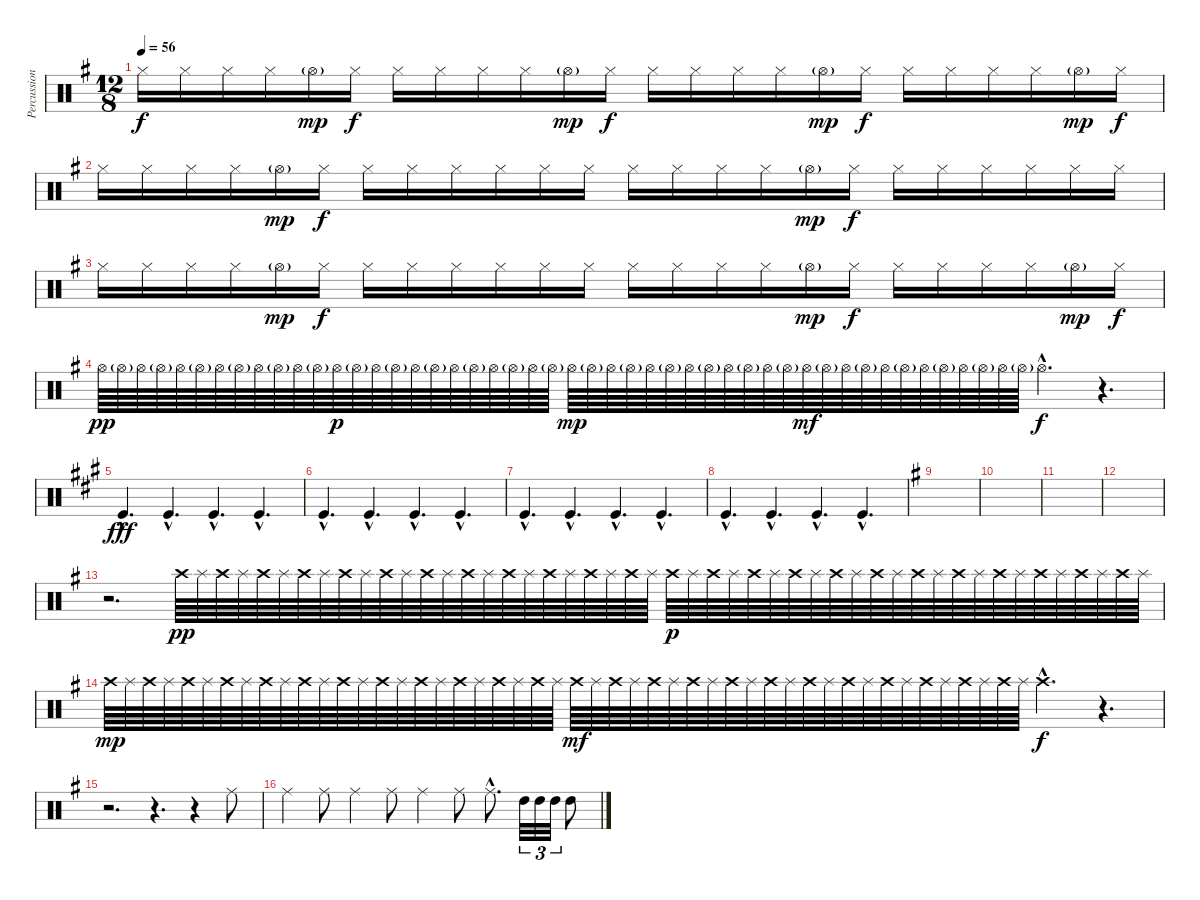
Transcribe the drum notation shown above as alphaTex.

\track ("Percussions" "Percussion") {instrument percussion}
\staff {score}
\articulation defaults
\ts (12 8)
\tempo 56
\clef neutral
\ks eminor "Hi-Hat (closed)".16{dy f} "Hi-Hat (closed)".16 "Hi-Hat (closed)".16 "Hi-Hat (closed)".16 "Hi-Hat (open)"{g}.16{dy mp} "Hi-Hat (closed)".16{dy f} "Hi-Hat (closed)".16 "Hi-Hat (closed)".16 "Hi-Hat (closed)".16 "Hi-Hat (closed)".16 "Hi-Hat (open)"{g}.16{dy mp} "Hi-Hat (closed)".16{dy f} "Hi-Hat (closed)".16 "Hi-Hat (closed)".16 "Hi-Hat (closed)".16 "Hi-Hat (closed)".16 "Hi-Hat (open)"{g}.16{dy mp} "Hi-Hat (closed)".16{dy f} "Hi-Hat (closed)".16 "Hi-Hat (closed)".16 "Hi-Hat (closed)".16 "Hi-Hat (closed)".16 "Hi-Hat (open)"{g}.16{dy mp} "Hi-Hat (closed)".16{dy f}
|
"Hi-Hat (closed)".16 "Hi-Hat (closed)".16 "Hi-Hat (closed)".16 "Hi-Hat (closed)".16 "Hi-Hat (open)"{g}.16{dy mp} "Hi-Hat (closed)".16{dy f} "Hi-Hat (closed)".16 "Hi-Hat (closed)".16 "Hi-Hat (closed)".16 "Hi-Hat (closed)".16 "Hi-Hat (closed)".16 "Hi-Hat (closed)".16 "Hi-Hat (closed)".16 "Hi-Hat (closed)".16 "Hi-Hat (closed)".16 "Hi-Hat (closed)".16 "Hi-Hat (open)"{g}.16{dy mp} "Hi-Hat (closed)".16{dy f} "Hi-Hat (closed)".16 "Hi-Hat (closed)".16 "Hi-Hat (closed)".16 "Hi-Hat (closed)".16 "Hi-Hat (closed)".16 "Hi-Hat (closed)".16 |
"Hi-Hat (closed)".16 "Hi-Hat (closed)".16 "Hi-Hat (closed)".16 "Hi-Hat (closed)".16 "Hi-Hat (open)"{g}.16{dy mp} "Hi-Hat (closed)".16{dy f} "Hi-Hat (closed)".16 "Hi-Hat (closed)".16 "Hi-Hat (closed)".16 "Hi-Hat (closed)".16 "Hi-Hat (closed)".16 "Hi-Hat (closed)".16 "Hi-Hat (closed)".16 "Hi-Hat (closed)".16 "Hi-Hat (closed)".16 "Hi-Hat (closed)".16 "Hi-Hat (open)"{g}.16{dy mp} "Hi-Hat (closed)".16{dy f} "Hi-Hat (closed)".16 "Hi-Hat (closed)".16 "Hi-Hat (closed)".16 "Hi-Hat (closed)".16 "Hi-Hat (open)"{g}.16{dy mp} "Hi-Hat (closed)".16{dy f} |
"Hi-Hat (open)".64{dy pp} "Hi-Hat (open)"{g}.64 "Hi-Hat (open)".64 "Hi-Hat (open)"{g}.64 "Hi-Hat (open)".64 "Hi-Hat (open)"{g}.64 "Hi-Hat (open)".64 "Hi-Hat (open)"{g}.64 "Hi-Hat (open)".64 "Hi-Hat (open)"{g}.64 "Hi-Hat (open)".64 "Hi-Hat (open)"{g}.64 "Hi-Hat (open)".64{dy p} "Hi-Hat (open)"{g}.64 "Hi-Hat (open)".64 "Hi-Hat (open)"{g}.64 "Hi-Hat (open)".64 "Hi-Hat (open)"{g}.64 "Hi-Hat (open)".64 "Hi-Hat (open)"{g}.64 "Hi-Hat (open)".64 "Hi-Hat (open)"{g}.64 "Hi-Hat (open)".64 "Hi-Hat (open)"{g}.64 "Hi-Hat (open)".64{dy mp} "Hi-Hat (open)"{g}.64 "Hi-Hat (open)".64 "Hi-Hat (open)"{g}.64 "Hi-Hat (open)".64 "Hi-Hat (open)"{g}.64 "Hi-Hat (open)".64 "Hi-Hat (open)"{g}.64 "Hi-Hat (open)".64 "Hi-Hat (open)"{g}.64 "Hi-Hat (open)".64 "Hi-Hat (open)"{g}.64 "Hi-Hat (open)".64{dy mf} "Hi-Hat (open)"{g}.64 "Hi-Hat (open)".64 "Hi-Hat (open)"{g}.64 "Hi-Hat (open)".64 "Hi-Hat (open)"{g}.64 "Hi-Hat (open)".64 "Hi-Hat (open)"{g}.64 "Hi-Hat (open)".64 "Hi-Hat (open)"{g}.64 "Hi-Hat (open)".64 "Hi-Hat (open)"{g}.64 "Hi-Hat (open)"{hac}.4{d dy f} r.4{d} |
\ks f#minor "Kick (hit)"{hac}.4{d dy fff} "Kick (hit)"{hac}.4{d} "Kick (hit)"{hac}.4{d} "Kick (hit)"{hac}.4{d}
|
"Kick (hit)"{hac}.4{d} "Kick (hit)"{hac}.4{d} "Kick (hit)"{hac}.4{d} "Kick (hit)"{hac}.4{d} |
"Kick (hit)"{hac}.4{d} "Kick (hit)"{hac}.4{d} "Kick (hit)"{hac}.4{d} "Kick (hit)"{hac}.4{d} |
"Kick (hit)"{hac}.4{d} "Kick (hit)"{hac}.4{d} "Kick (hit)"{hac}.4{d} "Kick (hit)"{hac}.4{d} |
\ks g
|
|
|
|
r.2{d} "Crash high (hit)".64{dy pp} "Splash (hit)".64 "Crash high (hit)".64 "Splash (hit)".64 "Crash high (hit)".64 "Splash (hit)".64 "Crash high (hit)".64 "Splash (hit)".64 "Crash high (hit)".64 "Splash (hit)".64 "Crash high (hit)".64 "Splash (hit)".64 "Crash high (hit)".64 "Splash (hit)".64 "Crash high (hit)".64 "Splash (hit)".64 "Crash high (hit)".64 "Splash (hit)".64 "Crash high (hit)".64 "Splash (hit)".64 "Crash high (hit)".64 "Splash (hit)".64 "Crash high (hit)".64 "Splash (hit)".64 "Crash high (hit)".64{dy p} "Splash (hit)".64 "Crash high (hit)".64 "Splash (hit)".64 "Crash high (hit)".64 "Splash (hit)".64 "Crash high (hit)".64 "Splash (hit)".64 "Crash high (hit)".64 "Splash (hit)".64 "Crash high (hit)".64 "Splash (hit)".64 "Crash high (hit)".64 "Splash (hit)".64 "Crash high (hit)".64 "Splash (hit)".64 "Crash high (hit)".64 "Splash (hit)".64 "Crash high (hit)".64 "Splash (hit)".64 "Crash high (hit)".64 "Splash (hit)".64 "Crash high (hit)".64 "Splash (hit)".64 |
"Crash high (hit)".64{dy mp} "Splash (hit)".64 "Crash high (hit)".64 "Splash (hit)".64 "Crash high (hit)".64 "Splash (hit)".64 "Crash high (hit)".64 "Splash (hit)".64 "Crash high (hit)".64 "Splash (hit)".64 "Crash high (hit)".64 "Splash (hit)".64 "Crash high (hit)".64 "Splash (hit)".64 "Crash high (hit)".64 "Splash (hit)".64 "Crash high (hit)".64 "Splash (hit)".64 "Crash high (hit)".64 "Splash (hit)".64 "Crash high (hit)".64 "Splash (hit)".64 "Crash high (hit)".64 "Splash (hit)".64 "Crash high (hit)".64{dy mf} "Splash (hit)".64 "Crash high (hit)".64 "Splash (hit)".64 "Crash high (hit)".64 "Splash (hit)".64 "Crash high (hit)".64 "Splash (hit)".64 "Crash high (hit)".64 "Splash (hit)".64 "Crash high (hit)".64 "Splash (hit)".64 "Crash high (hit)".64 "Splash (hit)".64 "Crash high (hit)".64 "Splash (hit)".64 "Crash high (hit)".64 "Splash (hit)".64 "Crash high (hit)".64 "Splash (hit)".64 "Crash high (hit)".64 "Splash (hit)".64 "Crash high (hit)".64 "Splash (hit)".64 "Crash high (hit)"{hac}.4{d dy f} r.4{d} |
\ks eminor
r.2{d} r.4{d} r.4 "Ride (middle)".8 |
"Ride (middle)".4 "Ride (middle)".8 "Ride (middle)".4 "Ride (middle)".8 "Ride (middle)".4 "Ride (middle)".8 "Ride (middle)"{hac}.8{d} "High Tom (hit)".32{tu (3 2)} "High Tom (hit)".32{tu (3 2)} "High Tom (hit)".32{tu (3 2)} "High Tom (hit)".8
